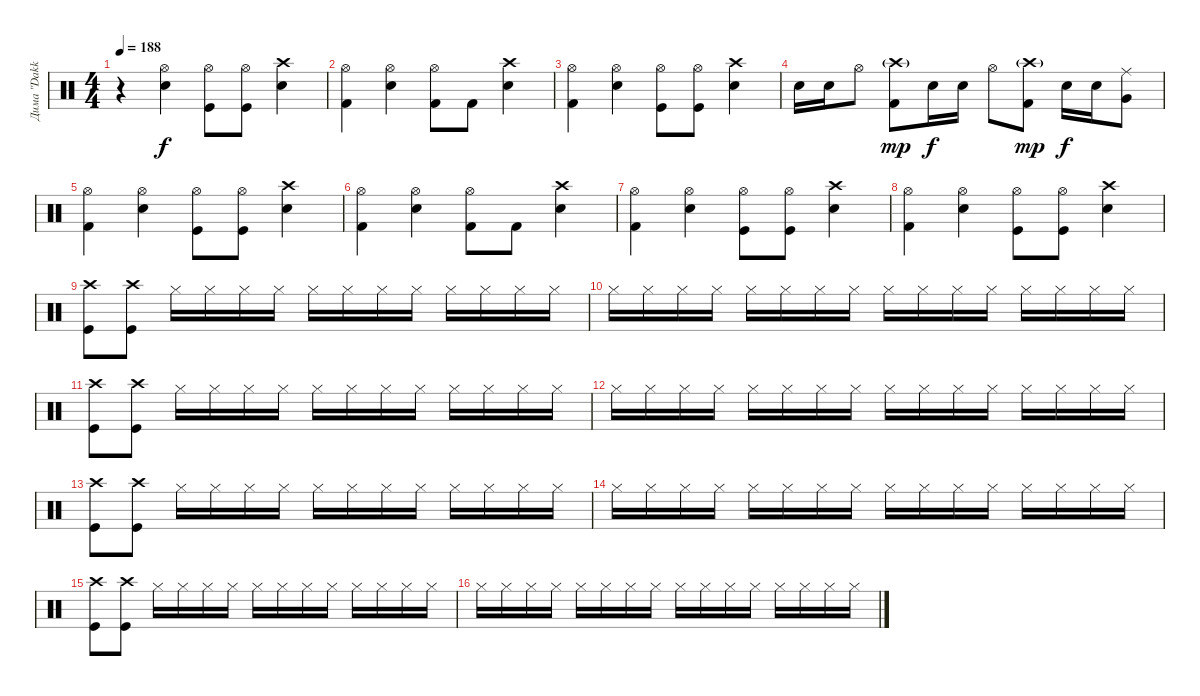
\track ("Дима \"Dakkar\" Кеменов" "Дима \"Dakk") {instrument percussion}
\staff
\articulation defaults
\ts (4 4)
\tempo 188
\clef neutral
\ks c
r.4{dy f} ("Hi-Hat (open)" "Electric Snare (hit)").4 ("Hi-Hat (open)" "Kick (hit)").8 ("Hi-Hat (open)" "Kick (hit)").8 ("Crash high (hit)" "Electric Snare (hit)").4 |
("Hi-Hat (open)" "Kick (hit) 2").4 ("Hi-Hat (open)" "Electric Snare (hit)").4 ("Hi-Hat (open)" "Kick (hit) 2").8 "Kick (hit) 2".8 ("Crash high (hit)" "Electric Snare (hit)").4 |
("Hi-Hat (open)" "Kick (hit) 2").4 ("Hi-Hat (open)" "Electric Snare (hit)").4 ("Hi-Hat (open)" "Kick (hit)").8 ("Hi-Hat (open)" "Kick (hit)").8 ("Crash high (hit)" "Electric Snare (hit)").4 |
"Electric Snare (hit)".16 "Electric Snare (hit)".16 "Hi-Hat (open)".8 ("Crash high (hit)"{g} "Kick (hit) 2").8{dy mp} "Electric Snare (hit)".16{dy f} "Electric Snare (hit)".16 "Hi-Hat (open)".8 ("Crash high (hit)"{g} "Kick (hit) 2").8{dy mp} "Electric Snare (hit)".16{dy f} "Electric Snare (hit)".16 ("Ride (middle)" "Very Low Tom (hit)").8 |
("Hi-Hat (open)" "Kick (hit) 2").4 ("Hi-Hat (open)" "Electric Snare (hit)").4 ("Hi-Hat (open)" "Kick (hit)").8 ("Hi-Hat (open)" "Kick (hit)").8 ("Crash high (hit)" "Electric Snare (hit)").4 |
("Hi-Hat (open)" "Kick (hit) 2").4 ("Hi-Hat (open)" "Electric Snare (hit)").4 ("Hi-Hat (open)" "Kick (hit) 2").8 "Kick (hit) 2".8 ("Crash high (hit)" "Electric Snare (hit)").4 |
("Hi-Hat (open)" "Kick (hit) 2").4 ("Hi-Hat (open)" "Electric Snare (hit)").4 ("Hi-Hat (open)" "Kick (hit)").8 ("Hi-Hat (open)" "Kick (hit)").8 ("Crash high (hit)" "Electric Snare (hit)").4 |
("Hi-Hat (open)" "Kick (hit) 2").4 ("Hi-Hat (open)" "Electric Snare (hit)").4 ("Hi-Hat (open)" "Kick (hit)").8 ("Hi-Hat (open)" "Kick (hit)").8 ("Crash high (hit)" "Electric Snare (hit)").4 |
("Crash high (hit)" "Kick (hit)").8{volume 12} ("Crash high (hit)" "Kick (hit)").8 "Hi-Hat (closed)".16 "Hi-Hat (closed)".16 "Hi-Hat (closed)".16 "Hi-Hat (closed)".16 "Hi-Hat (closed)".16 "Hi-Hat (closed)".16 "Hi-Hat (closed)".16 "Hi-Hat (closed)".16 "Hi-Hat (closed)".16 "Hi-Hat (closed)".16 "Hi-Hat (closed)".16 "Hi-Hat (closed)".16 |
"Hi-Hat (closed)".16 "Hi-Hat (closed)".16 "Hi-Hat (closed)".16 "Hi-Hat (closed)".16 "Hi-Hat (closed)".16 "Hi-Hat (closed)".16 "Hi-Hat (closed)".16 "Hi-Hat (closed)".16 "Hi-Hat (closed)".16 "Hi-Hat (closed)".16 "Hi-Hat (closed)".16 "Hi-Hat (closed)".16 "Hi-Hat (closed)".16 "Hi-Hat (closed)".16 "Hi-Hat (closed)".16 "Hi-Hat (closed)".16 |
("Crash high (hit)" "Kick (hit)").8 ("Crash high (hit)" "Kick (hit)").8 "Hi-Hat (closed)".16 "Hi-Hat (closed)".16 "Hi-Hat (closed)".16 "Hi-Hat (closed)".16 "Hi-Hat (closed)".16 "Hi-Hat (closed)".16 "Hi-Hat (closed)".16 "Hi-Hat (closed)".16 "Hi-Hat (closed)".16 "Hi-Hat (closed)".16 "Hi-Hat (closed)".16 "Hi-Hat (closed)".16 |
"Hi-Hat (closed)".16 "Hi-Hat (closed)".16 "Hi-Hat (closed)".16 "Hi-Hat (closed)".16 "Hi-Hat (closed)".16 "Hi-Hat (closed)".16 "Hi-Hat (closed)".16 "Hi-Hat (closed)".16 "Hi-Hat (closed)".16 "Hi-Hat (closed)".16 "Hi-Hat (closed)".16 "Hi-Hat (closed)".16 "Hi-Hat (closed)".16 "Hi-Hat (closed)".16 "Hi-Hat (closed)".16 "Hi-Hat (closed)".16 |
("Crash high (hit)" "Kick (hit)").8 ("Crash high (hit)" "Kick (hit)").8 "Hi-Hat (closed)".16 "Hi-Hat (closed)".16 "Hi-Hat (closed)".16 "Hi-Hat (closed)".16 "Hi-Hat (closed)".16 "Hi-Hat (closed)".16 "Hi-Hat (closed)".16 "Hi-Hat (closed)".16 "Hi-Hat (closed)".16 "Hi-Hat (closed)".16 "Hi-Hat (closed)".16 "Hi-Hat (closed)".16 |
"Hi-Hat (closed)".16 "Hi-Hat (closed)".16 "Hi-Hat (closed)".16 "Hi-Hat (closed)".16 "Hi-Hat (closed)".16 "Hi-Hat (closed)".16 "Hi-Hat (closed)".16 "Hi-Hat (closed)".16 "Hi-Hat (closed)".16 "Hi-Hat (closed)".16 "Hi-Hat (closed)".16 "Hi-Hat (closed)".16 "Hi-Hat (closed)".16 "Hi-Hat (closed)".16 "Hi-Hat (closed)".16 "Hi-Hat (closed)".16 |
("Crash high (hit)" "Kick (hit)").8 ("Crash high (hit)" "Kick (hit)").8 "Hi-Hat (closed)".16 "Hi-Hat (closed)".16 "Hi-Hat (closed)".16 "Hi-Hat (closed)".16 "Hi-Hat (closed)".16 "Hi-Hat (closed)".16 "Hi-Hat (closed)".16 "Hi-Hat (closed)".16 "Hi-Hat (closed)".16 "Hi-Hat (closed)".16 "Hi-Hat (closed)".16 "Hi-Hat (closed)".16 |
"Hi-Hat (closed)".16 "Hi-Hat (closed)".16 "Hi-Hat (closed)".16 "Hi-Hat (closed)".16 "Hi-Hat (closed)".16 "Hi-Hat (closed)".16 "Hi-Hat (closed)".16 "Hi-Hat (closed)".16 "Hi-Hat (closed)".16 "Hi-Hat (closed)".16 "Hi-Hat (closed)".16 "Hi-Hat (closed)".16 "Hi-Hat (closed)".16 "Hi-Hat (closed)".16 "Hi-Hat (closed)".16 "Hi-Hat (closed)".16
